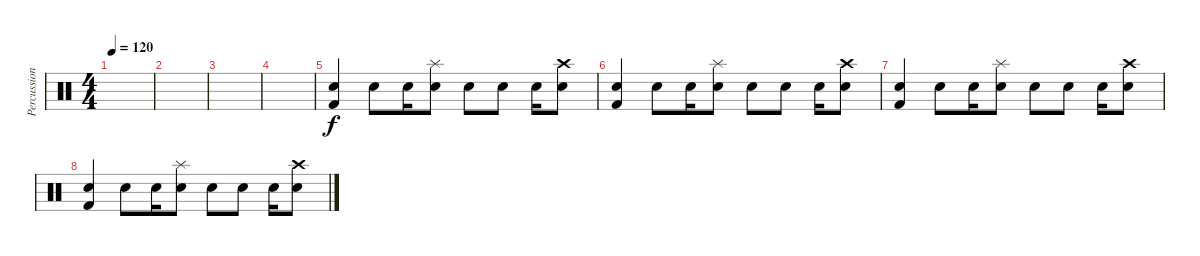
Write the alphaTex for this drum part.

\track ("Percussion" "Percussion") {instrument percussion}
\staff {score}
\articulation defaults
\ts (4 4)
\tempo 120
\clef neutral
\ks c
|
|
|
|
("Electric Snare (hit)" "Kick (hit) 2").4 "Electric Snare (hit)".8 "Electric Snare (hit)".16 ("Electric Snare (hit)" "Splash (hit)").8 "Electric Snare (hit)".8 "Electric Snare (hit)".8 "Electric Snare (hit)".16 ("Electric Snare (hit)" "Crash high (hit)").8 |
("Electric Snare (hit)" "Kick (hit) 2").4 "Electric Snare (hit)".8 "Electric Snare (hit)".16 ("Electric Snare (hit)" "Splash (hit)").8 "Electric Snare (hit)".8 "Electric Snare (hit)".8 "Electric Snare (hit)".16 ("Electric Snare (hit)" "Crash high (hit)").8 |
("Electric Snare (hit)" "Kick (hit) 2").4 "Electric Snare (hit)".8 "Electric Snare (hit)".16 ("Electric Snare (hit)" "Splash (hit)").8 "Electric Snare (hit)".8 "Electric Snare (hit)".8 "Electric Snare (hit)".16 ("Electric Snare (hit)" "Crash high (hit)").8 |
("Electric Snare (hit)" "Kick (hit) 2").4 "Electric Snare (hit)".8 "Electric Snare (hit)".16 ("Electric Snare (hit)" "Splash (hit)").8 "Electric Snare (hit)".8 "Electric Snare (hit)".8 "Electric Snare (hit)".16 ("Electric Snare (hit)" "Crash high (hit)").8
